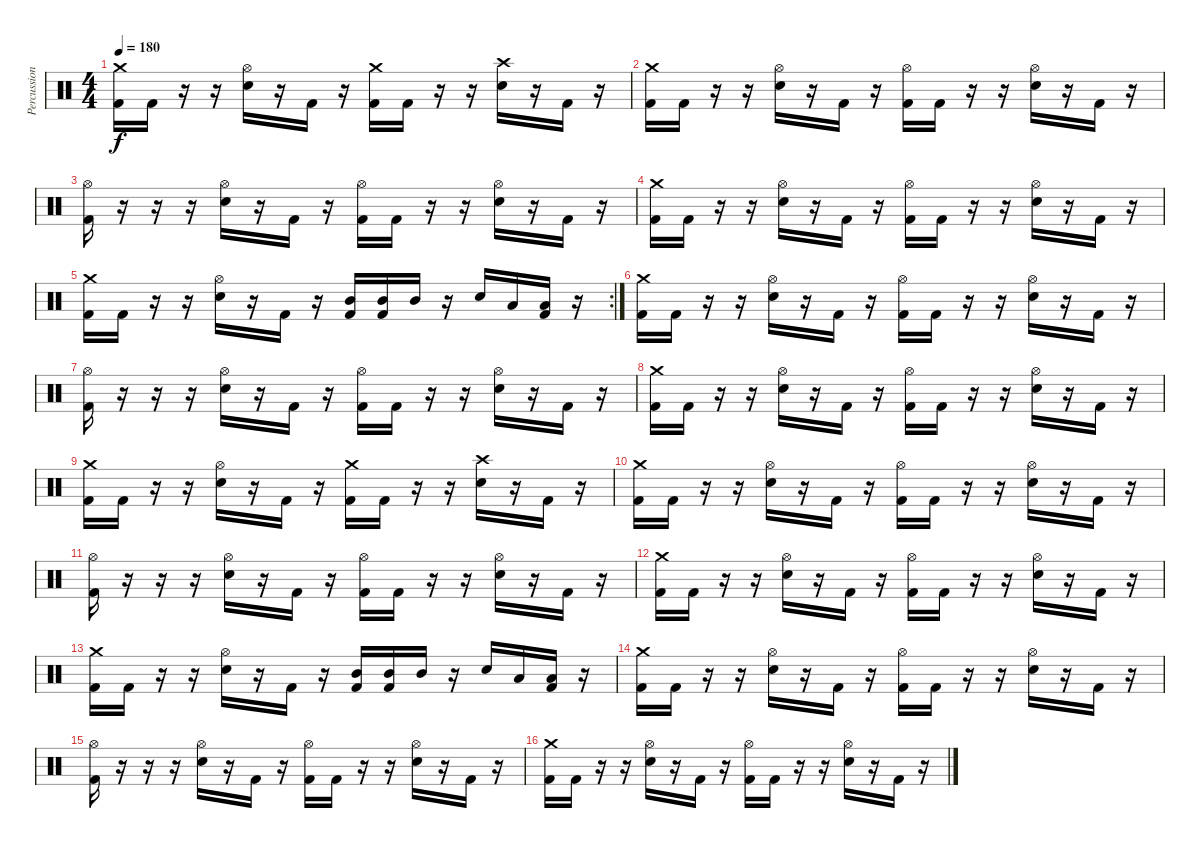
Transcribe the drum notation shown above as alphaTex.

\track ("Percussions" "Percussion") {instrument percussion}
\staff {score}
\articulation defaults
\ts (4 4)
\tempo 180
\clef neutral
\ks c
("Kick (hit) 2" "Crash medium (hit)").16{dy f} "Kick (hit) 2".16 r.16 r.16 ("Snare (hit) 2" "Hi-Hat (open)").16 r.16 "Kick (hit) 2".16 r.16 ("Kick (hit) 2" "Crash medium (hit)").16 "Kick (hit) 2".16 r.16 r.16 ("Snare (hit) 2" "Crash high (hit)").16 r.16 "Kick (hit) 2".16 r.16 |
("Kick (hit) 2" "Crash medium (hit)").16 "Kick (hit) 2".16 r.16 r.16 ("Snare (hit) 2" "Hi-Hat (open)").16 r.16 "Kick (hit) 2".16 r.16 ("Kick (hit) 2" "Hi-Hat (open)").16 "Kick (hit) 2".16 r.16 r.16 ("Snare (hit) 2" "Hi-Hat (open)").16 r.16 "Kick (hit) 2".16 r.16 |
("Kick (hit) 2" "Hi-Hat (open)").16 r.16 r.16 r.16 ("Snare (hit) 2" "Hi-Hat (open)").16 r.16 "Kick (hit) 2".16 r.16 ("Kick (hit) 2" "Hi-Hat (open)").16 "Kick (hit) 2".16 r.16 r.16 ("Snare (hit) 2" "Hi-Hat (open)").16 r.16 "Kick (hit) 2".16 r.16 |
("Kick (hit) 2" "Crash medium (hit)").16 "Kick (hit) 2".16 r.16 r.16 ("Snare (hit) 2" "Hi-Hat (open)").16 r.16 "Kick (hit) 2".16 r.16 ("Kick (hit) 2" "Hi-Hat (open)").16 "Kick (hit) 2".16 r.16 r.16 ("Snare (hit) 2" "Hi-Hat (open)").16 r.16 "Kick (hit) 2".16 r.16 |
\rc 2
("Kick (hit) 2" "Crash medium (hit)").16 "Kick (hit) 2".16 r.16 r.16 ("Snare (hit) 2" "Hi-Hat (open)").16 r.16 "Kick (hit) 2".16 r.16 ("Kick (hit) 2" "Mid Tom (hit)").16 ("Kick (hit) 2" "Mid Tom (hit)").16 "Mid Tom (hit)".16 r.16 "Snare (hit) 2".16 "Low Tom (hit)".16 ("Kick (hit) 2" "Low Tom (hit)").16 r.16 |
("Kick (hit) 2" "Crash medium (hit)").16 "Kick (hit) 2".16 r.16 r.16 ("Snare (hit) 2" "Hi-Hat (open)").16 r.16 "Kick (hit) 2".16 r.16 ("Kick (hit) 2" "Hi-Hat (open)").16 "Kick (hit) 2".16 r.16 r.16 ("Snare (hit) 2" "Hi-Hat (open)").16 r.16 "Kick (hit) 2".16 r.16 |
("Kick (hit) 2" "Hi-Hat (open)").16 r.16 r.16 r.16 ("Snare (hit) 2" "Hi-Hat (open)").16 r.16 "Kick (hit) 2".16 r.16 ("Kick (hit) 2" "Hi-Hat (open)").16 "Kick (hit) 2".16 r.16 r.16 ("Snare (hit) 2" "Hi-Hat (open)").16 r.16 "Kick (hit) 2".16 r.16 |
("Kick (hit) 2" "Crash medium (hit)").16 "Kick (hit) 2".16 r.16 r.16 ("Snare (hit) 2" "Hi-Hat (open)").16 r.16 "Kick (hit) 2".16 r.16 ("Kick (hit) 2" "Hi-Hat (open)").16 "Kick (hit) 2".16 r.16 r.16 ("Snare (hit) 2" "Hi-Hat (open)").16 r.16 "Kick (hit) 2".16 r.16 |
("Kick (hit) 2" "Crash medium (hit)").16 "Kick (hit) 2".16 r.16 r.16 ("Snare (hit) 2" "Hi-Hat (open)").16 r.16 "Kick (hit) 2".16 r.16 ("Kick (hit) 2" "Crash medium (hit)").16 "Kick (hit) 2".16 r.16 r.16 ("Snare (hit) 2" "Crash high (hit)").16 r.16 "Kick (hit) 2".16 r.16 |
("Kick (hit) 2" "Crash medium (hit)").16 "Kick (hit) 2".16 r.16 r.16 ("Snare (hit) 2" "Hi-Hat (open)").16 r.16 "Kick (hit) 2".16 r.16 ("Kick (hit) 2" "Hi-Hat (open)").16 "Kick (hit) 2".16 r.16 r.16 ("Snare (hit) 2" "Hi-Hat (open)").16 r.16 "Kick (hit) 2".16 r.16 |
("Kick (hit) 2" "Hi-Hat (open)").16 r.16 r.16 r.16 ("Snare (hit) 2" "Hi-Hat (open)").16 r.16 "Kick (hit) 2".16 r.16 ("Kick (hit) 2" "Hi-Hat (open)").16 "Kick (hit) 2".16 r.16 r.16 ("Snare (hit) 2" "Hi-Hat (open)").16 r.16 "Kick (hit) 2".16 r.16 |
("Kick (hit) 2" "Crash medium (hit)").16 "Kick (hit) 2".16 r.16 r.16 ("Snare (hit) 2" "Hi-Hat (open)").16 r.16 "Kick (hit) 2".16 r.16 ("Kick (hit) 2" "Hi-Hat (open)").16 "Kick (hit) 2".16 r.16 r.16 ("Snare (hit) 2" "Hi-Hat (open)").16 r.16 "Kick (hit) 2".16 r.16 |
("Kick (hit) 2" "Crash medium (hit)").16 "Kick (hit) 2".16 r.16 r.16 ("Snare (hit) 2" "Hi-Hat (open)").16 r.16 "Kick (hit) 2".16 r.16 ("Kick (hit) 2" "Mid Tom (hit)").16 ("Kick (hit) 2" "Mid Tom (hit)").16 "Mid Tom (hit)".16 r.16 "Snare (hit) 2".16 "Low Tom (hit)".16 ("Kick (hit) 2" "Low Tom (hit)").16 r.16 |
("Kick (hit) 2" "Crash medium (hit)").16 "Kick (hit) 2".16 r.16 r.16 ("Snare (hit) 2" "Hi-Hat (open)").16 r.16 "Kick (hit) 2".16 r.16 ("Kick (hit) 2" "Hi-Hat (open)").16 "Kick (hit) 2".16 r.16 r.16 ("Snare (hit) 2" "Hi-Hat (open)").16 r.16 "Kick (hit) 2".16 r.16 |
("Kick (hit) 2" "Hi-Hat (open)").16 r.16 r.16 r.16 ("Snare (hit) 2" "Hi-Hat (open)").16 r.16 "Kick (hit) 2".16 r.16 ("Kick (hit) 2" "Hi-Hat (open)").16 "Kick (hit) 2".16 r.16 r.16 ("Snare (hit) 2" "Hi-Hat (open)").16 r.16 "Kick (hit) 2".16 r.16 |
("Kick (hit) 2" "Crash medium (hit)").16 "Kick (hit) 2".16 r.16 r.16 ("Snare (hit) 2" "Hi-Hat (open)").16 r.16 "Kick (hit) 2".16 r.16 ("Kick (hit) 2" "Hi-Hat (open)").16 "Kick (hit) 2".16 r.16 r.16 ("Snare (hit) 2" "Hi-Hat (open)").16 r.16 "Kick (hit) 2".16 r.16
